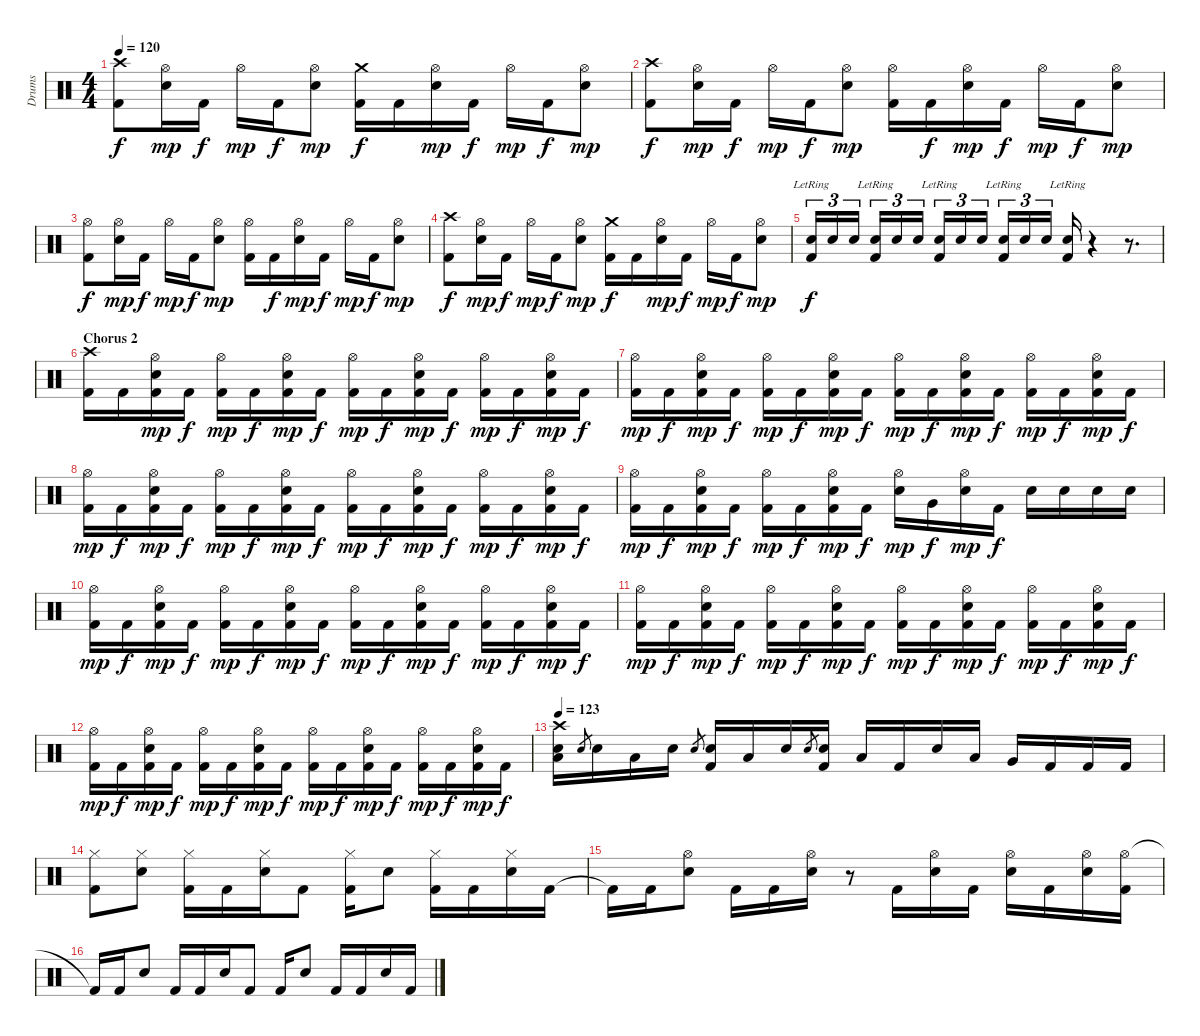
\track ("Drums" "Drums") {instrument percussion}
\staff {score}
\articulation defaults
\ts (4 4)
\tempo 120
\clef neutral
\ks c
("Crash high (hit)" "Kick (hit) 2").8{dy f} ("Hi-Hat (open)" "Snare (hit) 2").16{dy mp} "Kick (hit) 2".16{dy f} "Hi-Hat (open)".16{dy mp} "Kick (hit) 2".16{dy f} ("Hi-Hat (open)" "Snare (hit) 2").8{dy mp} ("Crash medium (hit)" "Kick (hit) 2").16{dy f} "Kick (hit) 2".16 ("Hi-Hat (open)" "Snare (hit) 2").16{dy mp} "Kick (hit) 2".16{dy f} "Hi-Hat (open)".16{dy mp} "Kick (hit) 2".16{dy f} ("Hi-Hat (open)" "Snare (hit) 2").8{dy mp} |
("Crash high (hit)" "Kick (hit) 2").8{dy f} ("Hi-Hat (open)" "Snare (hit) 2").16{dy mp} "Kick (hit) 2".16{dy f} "Hi-Hat (open)".16{dy mp} "Kick (hit) 2".16{dy f} ("Hi-Hat (open)" "Snare (hit) 2").8{dy mp} ("Hi-Hat (open)" "Kick (hit) 2").16 "Kick (hit) 2".16{dy f} ("Hi-Hat (open)" "Snare (hit) 2").16{dy mp} "Kick (hit) 2".16{dy f} "Hi-Hat (open)".16{dy mp} "Kick (hit) 2".16{dy f} ("Hi-Hat (open)" "Snare (hit) 2").8{dy mp} |
("Hi-Hat (open)" "Kick (hit) 2").8{dy f} ("Hi-Hat (open)" "Snare (hit) 2").16{dy mp} "Kick (hit) 2".16{dy f} "Hi-Hat (open)".16{dy mp} "Kick (hit) 2".16{dy f} ("Hi-Hat (open)" "Snare (hit) 2").8{dy mp} ("Hi-Hat (open)" "Kick (hit) 2").16 "Kick (hit) 2".16{dy f} ("Hi-Hat (open)" "Snare (hit) 2").16{dy mp} "Kick (hit) 2".16{dy f} "Hi-Hat (open)".16{dy mp} "Kick (hit) 2".16{dy f} ("Hi-Hat (open)" "Snare (hit) 2").8{dy mp} |
("Crash high (hit)" "Kick (hit) 2").8{dy f} ("Hi-Hat (open)" "Snare (hit) 2").16{dy mp} "Kick (hit) 2".16{dy f} "Hi-Hat (open)".16{dy mp} "Kick (hit) 2".16{dy f} ("Hi-Hat (open)" "Snare (hit) 2").8{dy mp} ("Crash medium (hit)" "Kick (hit) 2").16{dy f} "Kick (hit) 2".16 ("Hi-Hat (open)" "Snare (hit) 2").16{dy mp} "Kick (hit) 2".16{dy f} "Hi-Hat (open)".16{dy mp} "Kick (hit) 2".16{dy f} ("Hi-Hat (open)" "Snare (hit) 2").8{dy mp} |
("Snare (hit) 2"{lr} "Kick (hit) 2").16{tu (3 2) dy f} "Snare (hit) 2".16{tu (3 2)} "Snare (hit) 2".16{tu (3 2)} ("Snare (hit) 2"{lr} "Kick (hit) 2").16{tu (3 2)} "Snare (hit) 2".16{tu (3 2)} "Snare (hit) 2".16{tu (3 2)} ("Snare (hit) 2"{lr} "Kick (hit) 2").16{tu (3 2)} "Snare (hit) 2".16{tu (3 2)} "Snare (hit) 2".16{tu (3 2)} ("Snare (hit) 2"{lr} "Kick (hit) 2").16{tu (3 2)} "Snare (hit) 2".16{tu (3 2)} "Snare (hit) 2".16{tu (3 2)} ("Snare (hit) 2"{lr} "Kick (hit) 2").16 r.4 r.8{d} |
\section ("" "Chorus 2")
("Crash high (hit)" "Kick (hit) 2").16 "Kick (hit) 2".16 ("Hi-Hat (open)" "Snare (hit) 2" "Kick (hit) 2").16{dy mp} "Kick (hit) 2".16{dy f} ("Hi-Hat (open)" "Kick (hit) 2").16{dy mp} "Kick (hit) 2".16{dy f} ("Hi-Hat (open)" "Snare (hit) 2" "Kick (hit) 2").16{dy mp} "Kick (hit) 2".16{dy f} ("Hi-Hat (open)" "Kick (hit) 2").16{dy mp} "Kick (hit) 2".16{dy f} ("Hi-Hat (open)" "Snare (hit) 2" "Kick (hit) 2").16{dy mp} "Kick (hit) 2".16{dy f} ("Hi-Hat (open)" "Kick (hit) 2").16{dy mp} "Kick (hit) 2".16{dy f} ("Hi-Hat (open)" "Snare (hit) 2" "Kick (hit) 2").16{dy mp} "Kick (hit) 2".16{dy f} |
("Hi-Hat (open)" "Kick (hit) 2").16{dy mp} "Kick (hit) 2".16{dy f} ("Hi-Hat (open)" "Snare (hit) 2" "Kick (hit) 2").16{dy mp} "Kick (hit) 2".16{dy f} ("Hi-Hat (open)" "Kick (hit) 2").16{dy mp} "Kick (hit) 2".16{dy f} ("Hi-Hat (open)" "Snare (hit) 2" "Kick (hit) 2").16{dy mp} "Kick (hit) 2".16{dy f} ("Hi-Hat (open)" "Kick (hit) 2").16{dy mp} "Kick (hit) 2".16{dy f} ("Hi-Hat (open)" "Snare (hit) 2" "Kick (hit) 2").16{dy mp} "Kick (hit) 2".16{dy f} ("Hi-Hat (open)" "Kick (hit) 2").16{dy mp} "Kick (hit) 2".16{dy f} ("Hi-Hat (open)" "Snare (hit) 2" "Kick (hit) 2").16{dy mp} "Kick (hit) 2".16{dy f} |
("Hi-Hat (open)" "Kick (hit) 2").16{dy mp} "Kick (hit) 2".16{dy f} ("Hi-Hat (open)" "Snare (hit) 2" "Kick (hit) 2").16{dy mp} "Kick (hit) 2".16{dy f} ("Hi-Hat (open)" "Kick (hit) 2").16{dy mp} "Kick (hit) 2".16{dy f} ("Hi-Hat (open)" "Snare (hit) 2" "Kick (hit) 2").16{dy mp} "Kick (hit) 2".16{dy f} ("Hi-Hat (open)" "Kick (hit) 2").16{dy mp} "Kick (hit) 2".16{dy f} ("Hi-Hat (open)" "Snare (hit) 2" "Kick (hit) 2").16{dy mp} "Kick (hit) 2".16{dy f} ("Hi-Hat (open)" "Kick (hit) 2").16{dy mp} "Kick (hit) 2".16{dy f} ("Hi-Hat (open)" "Snare (hit) 2" "Kick (hit) 2").16{dy mp} "Kick (hit) 2".16{dy f} |
("Hi-Hat (open)" "Kick (hit) 2").16{dy mp} "Kick (hit) 2".16{dy f} ("Hi-Hat (open)" "Snare (hit) 2" "Kick (hit) 2").16{dy mp} "Kick (hit) 2".16{dy f} ("Hi-Hat (open)" "Kick (hit) 2").16{dy mp} "Kick (hit) 2".16{dy f} ("Hi-Hat (open)" "Snare (hit) 2" "Kick (hit) 2").16{dy mp} "Kick (hit) 2".16{dy f} ("Hi-Hat (open)" "Snare (hit) 2").16{dy mp} "Very Low Tom (hit)".16{dy f} ("Hi-Hat (open)" "Snare (hit) 2").16{dy mp} "Kick (hit) 2".16{dy f} "Snare (hit) 2".16 "Snare (hit) 2".16 "Snare (hit) 2".16 "Snare (hit) 2".16 |
("Hi-Hat (open)" "Kick (hit) 2").16{dy mp} "Kick (hit) 2".16{dy f} ("Hi-Hat (open)" "Snare (hit) 2" "Kick (hit) 2").16{dy mp} "Kick (hit) 2".16{dy f} ("Hi-Hat (open)" "Kick (hit) 2").16{dy mp} "Kick (hit) 2".16{dy f} ("Hi-Hat (open)" "Snare (hit) 2" "Kick (hit) 2").16{dy mp} "Kick (hit) 2".16{dy f} ("Hi-Hat (open)" "Kick (hit) 2").16{dy mp} "Kick (hit) 2".16{dy f} ("Hi-Hat (open)" "Snare (hit) 2" "Kick (hit) 2").16{dy mp} "Kick (hit) 2".16{dy f} ("Hi-Hat (open)" "Kick (hit) 2").16{dy mp} "Kick (hit) 2".16{dy f} ("Hi-Hat (open)" "Snare (hit) 2" "Kick (hit) 2").16{dy mp} "Kick (hit) 2".16{dy f} |
("Hi-Hat (open)" "Kick (hit) 2").16{dy mp} "Kick (hit) 2".16{dy f} ("Hi-Hat (open)" "Snare (hit) 2" "Kick (hit) 2").16{dy mp} "Kick (hit) 2".16{dy f} ("Hi-Hat (open)" "Kick (hit) 2").16{dy mp} "Kick (hit) 2".16{dy f} ("Hi-Hat (open)" "Snare (hit) 2" "Kick (hit) 2").16{dy mp} "Kick (hit) 2".16{dy f} ("Hi-Hat (open)" "Kick (hit) 2").16{dy mp} "Kick (hit) 2".16{dy f} ("Hi-Hat (open)" "Snare (hit) 2" "Kick (hit) 2").16{dy mp} "Kick (hit) 2".16{dy f} ("Hi-Hat (open)" "Kick (hit) 2").16{dy mp} "Kick (hit) 2".16{dy f} ("Hi-Hat (open)" "Snare (hit) 2" "Kick (hit) 2").16{dy mp} "Kick (hit) 2".16{dy f} |
("Hi-Hat (open)" "Kick (hit) 2").16{dy mp} "Kick (hit) 2".16{dy f} ("Hi-Hat (open)" "Snare (hit) 2" "Kick (hit) 2").16{dy mp} "Kick (hit) 2".16{dy f} ("Hi-Hat (open)" "Kick (hit) 2").16{dy mp} "Kick (hit) 2".16{dy f} ("Hi-Hat (open)" "Snare (hit) 2" "Kick (hit) 2").16{dy mp} "Kick (hit) 2".16{dy f} ("Hi-Hat (open)" "Kick (hit) 2").16{dy mp} "Kick (hit) 2".16{dy f} ("Hi-Hat (open)" "Snare (hit) 2" "Kick (hit) 2").16{dy mp} "Kick (hit) 2".16{dy f} ("Hi-Hat (open)" "Kick (hit) 2").16{dy mp} "Kick (hit) 2".16{dy f} ("Hi-Hat (open)" "Snare (hit) 2" "Kick (hit) 2").16{dy mp} "Kick (hit) 2".16{dy f} |
\tempo 123
("Crash high (hit)" "Low Tom (hit)" "Snare (hit) 2").16 "Snare (hit) 2".8{gr} "Snare (hit) 2".16 "Low Tom (hit)".16 "Snare (hit) 2".16 "Snare (hit) 2".8{gr} ("Snare (hit) 2" "Kick (hit) 2").16 "Low Tom (hit)".16 "Snare (hit) 2".16 "Snare (hit) 2".8{gr} ("Snare (hit) 2" "Kick (hit) 2").16 "Low Tom (hit)".16 "Kick (hit) 2".16 "Snare (hit) 2".16 "Low Tom (hit)".16 "Very Low Tom (hit)".16 "Kick (hit) 2".16 "Kick (hit) 2".16 "Kick (hit) 2".16 |
("Hi-Hat (closed)" "Kick (hit) 2").8 ("Hi-Hat (closed)" "Snare (hit) 2").8 ("Hi-Hat (closed)" "Kick (hit) 2").16 "Kick (hit) 2".16 ("Hi-Hat (closed)" "Snare (hit) 2").16 "Kick (hit) 2".8 ("Hi-Hat (closed)" "Kick (hit) 2").16 "Snare (hit) 2".8 ("Hi-Hat (closed)" "Kick (hit) 2").16 "Kick (hit) 2".16 ("Hi-Hat (closed)" "Snare (hit) 2").16 "Kick (hit) 2".16 |
"Kick (hit) 2"{t}.16 "Kick (hit) 2".16 ("Hi-Hat (open)" "Snare (hit) 2").8 "Kick (hit) 2".16 "Kick (hit) 2".16 ("Hi-Hat (open)" "Snare (hit) 2").16 r.8 "Kick (hit) 2".16 ("Hi-Hat (open)" "Snare (hit) 2").16 "Kick (hit) 2".16 ("Hi-Hat (open)" "Snare (hit) 2").16 "Kick (hit) 2".16 ("Hi-Hat (open)" "Snare (hit) 2").16 ("Hi-Hat (open)" "Kick (hit) 2").16 |
"Kick (hit) 2"{t}.16 "Kick (hit) 2".16 "Snare (hit) 2".8 "Kick (hit) 2".16 "Kick (hit) 2".16 "Snare (hit) 2".16 "Kick (hit) 2".8 "Kick (hit) 2".16 "Snare (hit) 2".8 "Kick (hit) 2".16 "Kick (hit) 2".16 "Snare (hit) 2".16 "Kick (hit) 2".16
